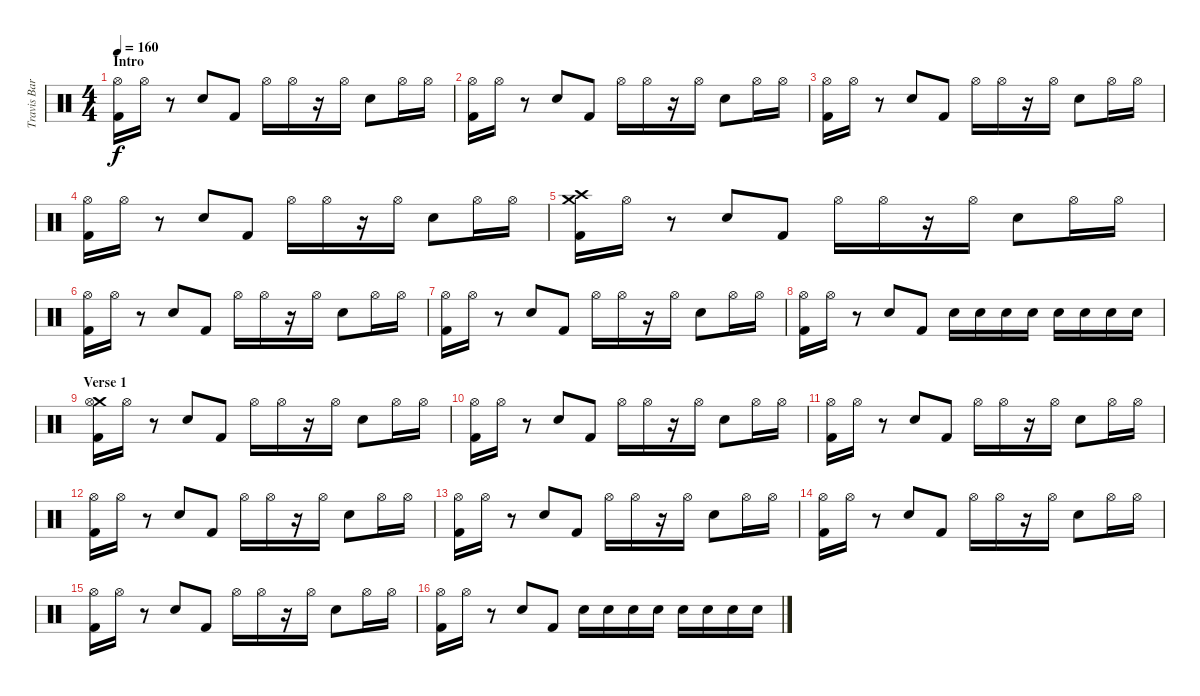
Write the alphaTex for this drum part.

\track ("Travis Barker Drums" "Travis Bar") {instrument percussion}
\staff {score}
\articulation defaults
\ts (4 4)
\section ("" "Intro")
\tempo 160
\clef neutral
\ks c
("Hi-Hat (open)" "Kick (hit) 2").16{dy f} "Hi-Hat (open)".16 r.8 "Electric Snare (hit)".8 "Kick (hit) 2".8 "Hi-Hat (open)".16 "Hi-Hat (open)".16 r.16 "Hi-Hat (open)".16 "Electric Snare (hit)".8 "Hi-Hat (open)".16 "Hi-Hat (open)".16 |
("Hi-Hat (open)" "Kick (hit) 2").16 "Hi-Hat (open)".16 r.8 "Electric Snare (hit)".8 "Kick (hit) 2".8 "Hi-Hat (open)".16 "Hi-Hat (open)".16 r.16 "Hi-Hat (open)".16 "Electric Snare (hit)".8 "Hi-Hat (open)".16 "Hi-Hat (open)".16 |
("Hi-Hat (open)" "Kick (hit) 2").16 "Hi-Hat (open)".16 r.8 "Electric Snare (hit)".8 "Kick (hit) 2".8 "Hi-Hat (open)".16 "Hi-Hat (open)".16 r.16 "Hi-Hat (open)".16 "Electric Snare (hit)".8 "Hi-Hat (open)".16 "Hi-Hat (open)".16 |
("Hi-Hat (open)" "Kick (hit) 2").16 "Hi-Hat (open)".16 r.8 "Electric Snare (hit)".8 "Kick (hit) 2".8 "Hi-Hat (open)".16 "Hi-Hat (open)".16 r.16 "Hi-Hat (open)".16 "Electric Snare (hit)".8 "Hi-Hat (open)".16 "Hi-Hat (open)".16 |
("Crash medium (hit)" "Crash high (hit)" "Kick (hit) 2").16 "Hi-Hat (open)".16 r.8 "Electric Snare (hit)".8 "Kick (hit) 2".8 "Hi-Hat (open)".16 "Hi-Hat (open)".16 r.16 "Hi-Hat (open)".16 "Electric Snare (hit)".8 "Hi-Hat (open)".16 "Hi-Hat (open)".16 |
("Hi-Hat (open)" "Kick (hit) 2").16 "Hi-Hat (open)".16 r.8 "Electric Snare (hit)".8 "Kick (hit) 2".8 "Hi-Hat (open)".16 "Hi-Hat (open)".16 r.16 "Hi-Hat (open)".16 "Electric Snare (hit)".8 "Hi-Hat (open)".16 "Hi-Hat (open)".16 |
("Hi-Hat (open)" "Kick (hit) 2").16 "Hi-Hat (open)".16 r.8 "Electric Snare (hit)".8 "Kick (hit) 2".8 "Hi-Hat (open)".16 "Hi-Hat (open)".16 r.16 "Hi-Hat (open)".16 "Electric Snare (hit)".8 "Hi-Hat (open)".16 "Hi-Hat (open)".16 |
("Hi-Hat (open)" "Kick (hit) 2").16 "Hi-Hat (open)".16 r.8 "Electric Snare (hit)".8 "Kick (hit) 2".8 "Electric Snare (hit)".16 "Electric Snare (hit)".16 "Electric Snare (hit)".16 "Electric Snare (hit)".16 "Electric Snare (hit)".16 "Electric Snare (hit)".16 "Electric Snare (hit)".16 "Electric Snare (hit)".16 |
\section ("" "Verse 1")
("Crash medium (hit)" "Hi-Hat (open)" "Kick (hit) 2").16 "Hi-Hat (open)".16 r.8 "Electric Snare (hit)".8 "Kick (hit) 2".8 "Hi-Hat (open)".16 "Hi-Hat (open)".16 r.16 "Hi-Hat (open)".16 "Electric Snare (hit)".8 "Hi-Hat (open)".16 "Hi-Hat (open)".16 |
("Hi-Hat (open)" "Kick (hit) 2").16 "Hi-Hat (open)".16 r.8 "Electric Snare (hit)".8 "Kick (hit) 2".8 "Hi-Hat (open)".16 "Hi-Hat (open)".16 r.16 "Hi-Hat (open)".16 "Electric Snare (hit)".8 "Hi-Hat (open)".16 "Hi-Hat (open)".16 |
("Hi-Hat (open)" "Kick (hit) 2").16 "Hi-Hat (open)".16 r.8 "Electric Snare (hit)".8 "Kick (hit) 2".8 "Hi-Hat (open)".16 "Hi-Hat (open)".16 r.16 "Hi-Hat (open)".16 "Electric Snare (hit)".8 "Hi-Hat (open)".16 "Hi-Hat (open)".16 |
("Hi-Hat (open)" "Kick (hit) 2").16 "Hi-Hat (open)".16 r.8 "Electric Snare (hit)".8 "Kick (hit) 2".8 "Hi-Hat (open)".16 "Hi-Hat (open)".16 r.16 "Hi-Hat (open)".16 "Electric Snare (hit)".8 "Hi-Hat (open)".16 "Hi-Hat (open)".16 |
("Hi-Hat (open)" "Kick (hit) 2").16 "Hi-Hat (open)".16 r.8 "Electric Snare (hit)".8 "Kick (hit) 2".8 "Hi-Hat (open)".16 "Hi-Hat (open)".16 r.16 "Hi-Hat (open)".16 "Electric Snare (hit)".8 "Hi-Hat (open)".16 "Hi-Hat (open)".16 |
("Hi-Hat (open)" "Kick (hit) 2").16 "Hi-Hat (open)".16 r.8 "Electric Snare (hit)".8 "Kick (hit) 2".8 "Hi-Hat (open)".16 "Hi-Hat (open)".16 r.16 "Hi-Hat (open)".16 "Electric Snare (hit)".8 "Hi-Hat (open)".16 "Hi-Hat (open)".16 |
("Hi-Hat (open)" "Kick (hit) 2").16 "Hi-Hat (open)".16 r.8 "Electric Snare (hit)".8 "Kick (hit) 2".8 "Hi-Hat (open)".16 "Hi-Hat (open)".16 r.16 "Hi-Hat (open)".16 "Electric Snare (hit)".8 "Hi-Hat (open)".16 "Hi-Hat (open)".16 |
("Hi-Hat (open)" "Kick (hit) 2").16 "Hi-Hat (open)".16 r.8 "Electric Snare (hit)".8 "Kick (hit) 2".8 "Electric Snare (hit)".16 "Electric Snare (hit)".16 "Electric Snare (hit)".16 "Electric Snare (hit)".16 "Electric Snare (hit)".16 "Electric Snare (hit)".16 "Electric Snare (hit)".16 "Electric Snare (hit)".16
